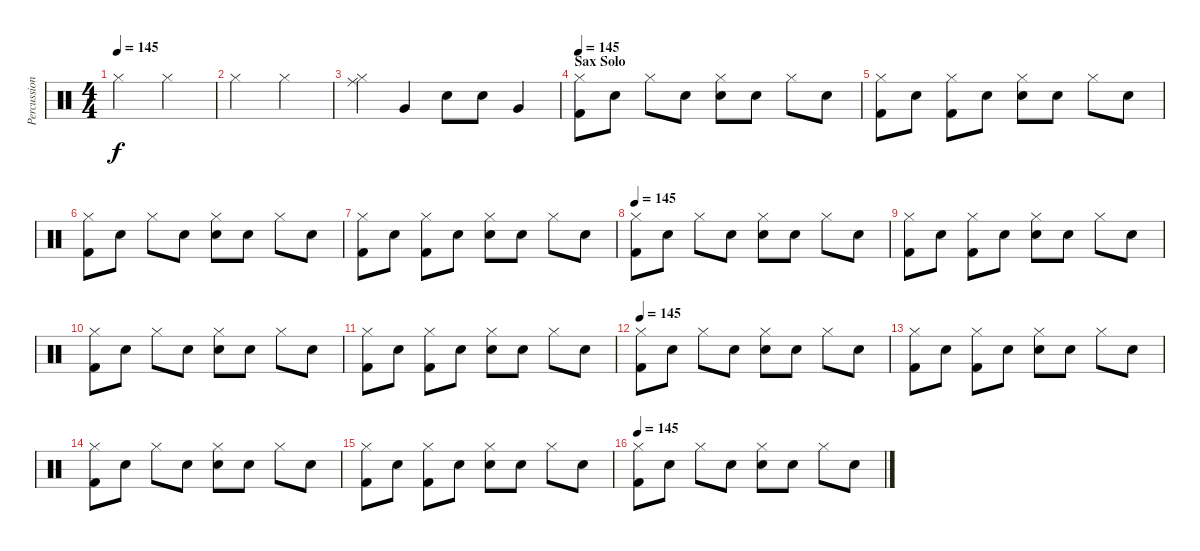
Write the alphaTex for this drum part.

\track ("Percussion" "Percussion") {instrument percussion}
\staff {score}
\articulation defaults
\ts (4 4)
\tempo 145
\clef neutral
\ks c "Hi-Hat (closed)".2{dy f} "Hi-Hat (closed)".2
|
"Hi-Hat (closed)".2 "Hi-Hat (closed)".2 |
("Hi-Hat (closed)" "Ride (middle)").4 "Very Low Tom (hit)".4 "Electric Snare (hit)".8 "Electric Snare (hit)".8 "Very Low Tom (hit)".4 |
\section ("" "Sax Solo")
\tempo 145
("Hi-Hat (closed)" "Kick (hit) 2").8 "Snare (hit)"{x}.8 "Hi-Hat (closed)".8 "Snare (hit)"{x}.8 ("Hi-Hat (closed)" "Electric Snare (hit)").8 "Snare (hit)"{x}.8 "Hi-Hat (closed)".8 "Snare (hit)"{x}.8 |
("Hi-Hat (closed)" "Kick (hit) 2").8 "Snare (hit)"{x}.8 ("Hi-Hat (closed)" "Kick (hit) 2").8 "Snare (hit)"{x}.8 ("Hi-Hat (closed)" "Electric Snare (hit)").8 "Snare (hit)"{x}.8 "Hi-Hat (closed)".8 "Snare (hit)"{x}.8 |
("Hi-Hat (closed)" "Kick (hit) 2").8 "Snare (hit)"{x}.8 "Hi-Hat (closed)".8 "Snare (hit)"{x}.8 ("Hi-Hat (closed)" "Electric Snare (hit)").8 "Snare (hit)"{x}.8 "Hi-Hat (closed)".8 "Snare (hit)"{x}.8 |
("Hi-Hat (closed)" "Kick (hit) 2").8 "Snare (hit)"{x}.8 ("Hi-Hat (closed)" "Kick (hit) 2").8 "Snare (hit)"{x}.8 ("Hi-Hat (closed)" "Electric Snare (hit)").8 "Snare (hit)"{x}.8 "Hi-Hat (closed)".8 "Snare (hit)"{x}.8 |
\tempo 145
("Hi-Hat (closed)" "Kick (hit) 2").8 "Snare (hit)"{x}.8 "Hi-Hat (closed)".8 "Snare (hit)"{x}.8 ("Hi-Hat (closed)" "Electric Snare (hit)").8 "Snare (hit)"{x}.8 "Hi-Hat (closed)".8 "Snare (hit)"{x}.8 |
("Hi-Hat (closed)" "Kick (hit) 2").8 "Snare (hit)"{x}.8 ("Hi-Hat (closed)" "Kick (hit) 2").8 "Snare (hit)"{x}.8 ("Hi-Hat (closed)" "Electric Snare (hit)").8 "Snare (hit)"{x}.8 "Hi-Hat (closed)".8 "Snare (hit)"{x}.8 |
("Hi-Hat (closed)" "Kick (hit) 2").8 "Snare (hit)"{x}.8 "Hi-Hat (closed)".8 "Snare (hit)"{x}.8 ("Hi-Hat (closed)" "Electric Snare (hit)").8 "Snare (hit)"{x}.8 "Hi-Hat (closed)".8 "Snare (hit)"{x}.8 |
("Hi-Hat (closed)" "Kick (hit) 2").8 "Snare (hit)"{x}.8 ("Hi-Hat (closed)" "Kick (hit) 2").8 "Snare (hit)"{x}.8 ("Hi-Hat (closed)" "Electric Snare (hit)").8 "Snare (hit)"{x}.8 "Hi-Hat (closed)".8 "Snare (hit)"{x}.8 |
\tempo 145
("Hi-Hat (closed)" "Kick (hit) 2").8 "Snare (hit)"{x}.8 "Hi-Hat (closed)".8 "Snare (hit)"{x}.8 ("Hi-Hat (closed)" "Electric Snare (hit)").8 "Snare (hit)"{x}.8 "Hi-Hat (closed)".8 "Snare (hit)"{x}.8 |
("Hi-Hat (closed)" "Kick (hit) 2").8 "Snare (hit)"{x}.8 ("Hi-Hat (closed)" "Kick (hit) 2").8 "Snare (hit)"{x}.8 ("Hi-Hat (closed)" "Electric Snare (hit)").8 "Snare (hit)"{x}.8 "Hi-Hat (closed)".8 "Snare (hit)"{x}.8 |
("Hi-Hat (closed)" "Kick (hit) 2").8 "Snare (hit)"{x}.8 "Hi-Hat (closed)".8 "Snare (hit)"{x}.8 ("Hi-Hat (closed)" "Electric Snare (hit)").8 "Snare (hit)"{x}.8 "Hi-Hat (closed)".8 "Snare (hit)"{x}.8 |
("Hi-Hat (closed)" "Kick (hit) 2").8 "Snare (hit)"{x}.8 ("Hi-Hat (closed)" "Kick (hit) 2").8 "Snare (hit)"{x}.8 ("Hi-Hat (closed)" "Electric Snare (hit)").8 "Snare (hit)"{x}.8 "Hi-Hat (closed)".8 "Snare (hit)"{x}.8 |
\tempo 145
("Hi-Hat (closed)" "Kick (hit) 2").8 "Snare (hit)"{x}.8 "Hi-Hat (closed)".8 "Snare (hit)"{x}.8 ("Hi-Hat (closed)" "Electric Snare (hit)").8 "Snare (hit)"{x}.8 "Hi-Hat (closed)".8 "Snare (hit)"{x}.8
